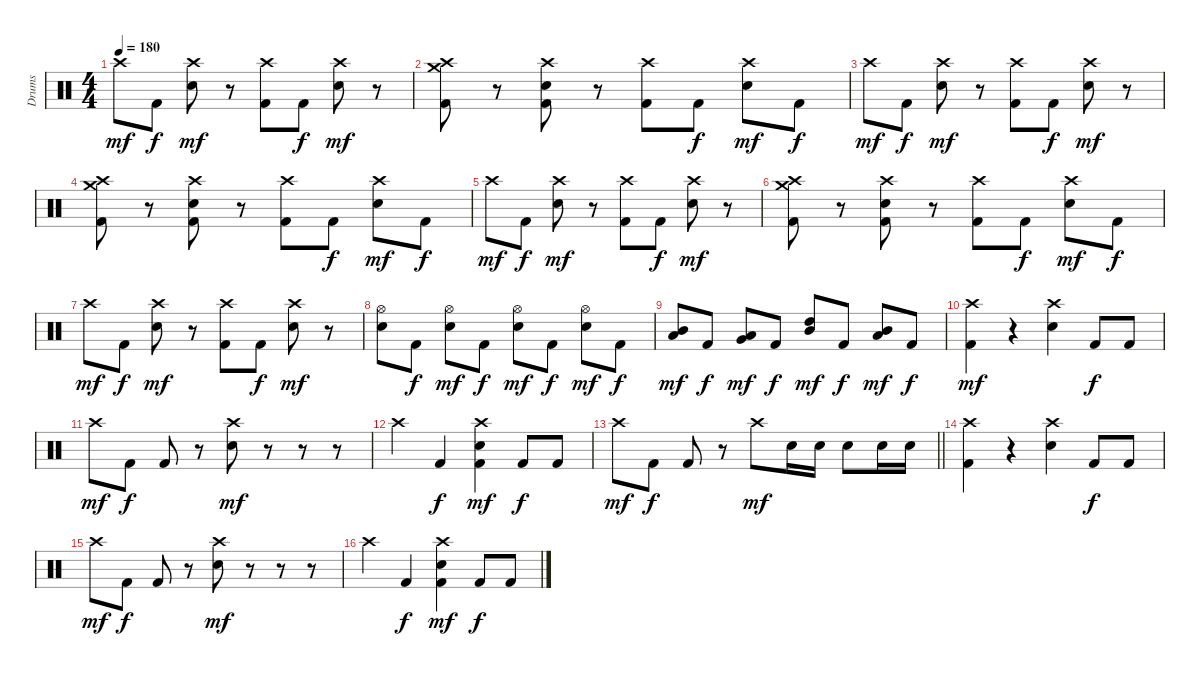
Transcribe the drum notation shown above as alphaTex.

\track ("Drums" "Drums") {instrument percussion}
\staff {score}
\articulation defaults
\ts (4 4)
\tempo 180
\clef neutral
\ks c "Crash high (hit)".8{dy mf} "Kick (hit) 2".8{dy f}
("Crash high (hit)" "Electric Snare (hit)").8{dy mf} r.8 ("Crash high (hit)" "Kick (hit) 2").8 "Kick (hit) 2".8{dy f} ("Crash high (hit)" "Electric Snare (hit)").8{dy mf} r.8 |
("Crash high (hit)" "Crash medium (hit)" "Kick (hit) 2").8 r.8 ("Crash high (hit)" "Electric Snare (hit)" "Kick (hit) 2").8 r.8 ("Crash high (hit)" "Kick (hit) 2").8 "Kick (hit) 2".8{dy f} ("Crash high (hit)" "Electric Snare (hit)").8{dy mf} "Kick (hit) 2".8{dy f} |
"Crash high (hit)".8{dy mf} "Kick (hit) 2".8{dy f} ("Crash high (hit)" "Electric Snare (hit)").8{dy mf} r.8 ("Crash high (hit)" "Kick (hit) 2").8 "Kick (hit) 2".8{dy f} ("Crash high (hit)" "Electric Snare (hit)").8{dy mf} r.8 |
("Crash high (hit)" "Crash medium (hit)" "Kick (hit) 2").8 r.8 ("Crash high (hit)" "Electric Snare (hit)" "Kick (hit) 2").8 r.8 ("Crash high (hit)" "Kick (hit) 2").8 "Kick (hit) 2".8{dy f} ("Crash high (hit)" "Electric Snare (hit)").8{dy mf} "Kick (hit) 2".8{dy f} |
"Crash high (hit)".8{dy mf} "Kick (hit) 2".8{dy f} ("Crash high (hit)" "Electric Snare (hit)").8{dy mf} r.8 ("Crash high (hit)" "Kick (hit) 2").8 "Kick (hit) 2".8{dy f} ("Crash high (hit)" "Electric Snare (hit)").8{dy mf} r.8 |
("Crash high (hit)" "Crash medium (hit)" "Kick (hit) 2").8 r.8 ("Crash high (hit)" "Electric Snare (hit)" "Kick (hit) 2").8 r.8 ("Crash high (hit)" "Kick (hit) 2").8 "Kick (hit) 2".8{dy f} ("Crash high (hit)" "Electric Snare (hit)").8{dy mf} "Kick (hit) 2".8{dy f} |
"Crash high (hit)".8{dy mf} "Kick (hit) 2".8{dy f} ("Crash high (hit)" "Electric Snare (hit)").8{dy mf} r.8 ("Crash high (hit)" "Kick (hit) 2").8 "Kick (hit) 2".8{dy f} ("Crash high (hit)" "Electric Snare (hit)").8{dy mf} r.8 |
("Hi-Hat (open)" "Electric Snare (hit)").8 "Kick (hit) 2".8{dy f} ("Hi-Hat (open)" "Electric Snare (hit)").8{dy mf} "Kick (hit) 2".8{dy f} ("Hi-Hat (open)" "Electric Snare (hit)").8{dy mf} "Kick (hit) 2".8{dy f} ("Hi-Hat (open)" "Electric Snare (hit)").8{dy mf} "Kick (hit) 2".8{dy f} |
("Low Tom (hit)" "Mid Tom (hit)").8{dy mf} "Kick (hit) 2".8{dy f} ("Very Low Tom (hit)" "Low Tom (hit)").8{dy mf} "Kick (hit) 2".8{dy f} ("High Tom (hit)" "Mid Tom (hit)").8{dy mf} "Kick (hit) 2".8{dy f} ("Low Tom (hit)" "Mid Tom (hit)").8{dy mf} "Kick (hit) 2".8{dy f} |
("Crash high (hit)" "Kick (hit) 2").4{dy mf} r.4 ("Crash high (hit)" "Electric Snare (hit)").4 "Kick (hit) 2".8{dy f} "Kick (hit) 2".8 |
"Crash high (hit)".8{dy mf} "Kick (hit) 2".8{dy f} "Kick (hit) 2".8 r.8 ("Crash high (hit)" "Electric Snare (hit)").8{dy mf} r.8 r.8 r.8 |
"Crash high (hit)".4 "Kick (hit) 2".4{dy f} ("Crash high (hit)" "Electric Snare (hit)" "Kick (hit) 2").4{dy mf} "Kick (hit) 2".8{dy f} "Kick (hit) 2".8 |
\barLineRight lightlight "Crash high (hit)".8{dy mf} "Kick (hit) 2".8{dy f} "Kick (hit) 2".8
r.8 "Crash high (hit)".8{dy mf} "Electric Snare (hit)".16 "Electric Snare (hit)".16 "Electric Snare (hit)".8 "Electric Snare (hit)".16 "Electric Snare (hit)".16 |
("Crash high (hit)" "Kick (hit) 2").4 r.4 ("Crash high (hit)" "Electric Snare (hit)").4 "Kick (hit) 2".8{dy f} "Kick (hit) 2".8 |
"Crash high (hit)".8{dy mf} "Kick (hit) 2".8{dy f} "Kick (hit) 2".8 r.8 ("Crash high (hit)" "Electric Snare (hit)").8{dy mf} r.8 r.8 r.8 |
"Crash high (hit)".4 "Kick (hit) 2".4{dy f} ("Crash high (hit)" "Electric Snare (hit)" "Kick (hit) 2").4{dy mf} "Kick (hit) 2".8{dy f} "Kick (hit) 2".8
